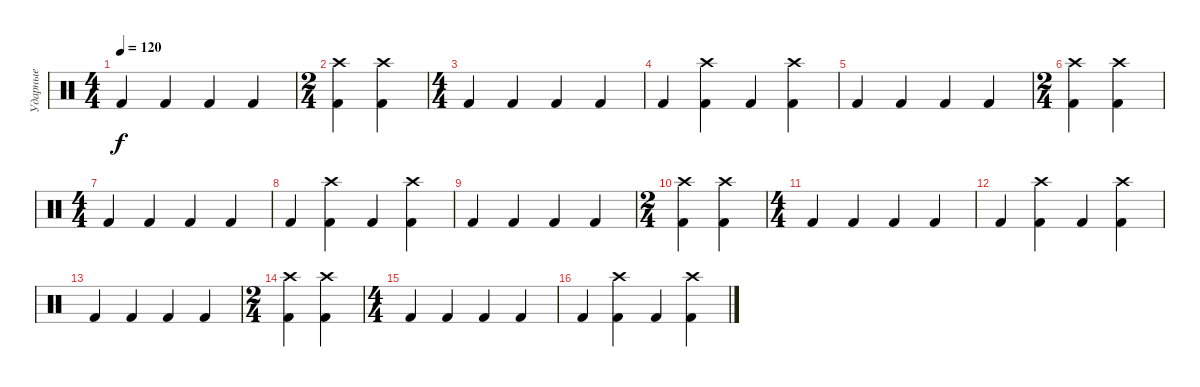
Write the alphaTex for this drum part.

\track ("Ударные" "Ударные") {instrument percussion}
\staff {score}
\articulation defaults
\ts (4 4)
\tempo 120
\clef neutral
\ks c "Kick (hit) 2".4{dy f} "Kick (hit) 2".4 "Kick (hit) 2".4 "Kick (hit) 2".4
|
\ts (2 4)
("Kick (hit) 2" "Crash high (hit)").4 ("Kick (hit) 2" "Crash high (hit)").4 |
\ts (4 4)
"Kick (hit) 2".4 "Kick (hit) 2".4 "Kick (hit) 2".4 "Kick (hit) 2".4 |
"Kick (hit) 2".4 ("Kick (hit) 2" "Crash high (hit)").4 "Kick (hit) 2".4 ("Kick (hit) 2" "Crash high (hit)").4 |
"Kick (hit) 2".4 "Kick (hit) 2".4 "Kick (hit) 2".4 "Kick (hit) 2".4 |
\ts (2 4)
("Kick (hit) 2" "Crash high (hit)").4 ("Kick (hit) 2" "Crash high (hit)").4 |
\ts (4 4)
"Kick (hit) 2".4 "Kick (hit) 2".4 "Kick (hit) 2".4 "Kick (hit) 2".4 |
"Kick (hit) 2".4 ("Kick (hit) 2" "Crash high (hit)").4 "Kick (hit) 2".4 ("Kick (hit) 2" "Crash high (hit)").4 |
"Kick (hit) 2".4 "Kick (hit) 2".4 "Kick (hit) 2".4 "Kick (hit) 2".4 |
\ts (2 4)
("Kick (hit) 2" "Crash high (hit)").4 ("Kick (hit) 2" "Crash high (hit)").4 |
\ts (4 4)
"Kick (hit) 2".4 "Kick (hit) 2".4 "Kick (hit) 2".4 "Kick (hit) 2".4 |
"Kick (hit) 2".4 ("Kick (hit) 2" "Crash high (hit)").4 "Kick (hit) 2".4 ("Kick (hit) 2" "Crash high (hit)").4 |
"Kick (hit) 2".4 "Kick (hit) 2".4 "Kick (hit) 2".4 "Kick (hit) 2".4 |
\ts (2 4)
("Kick (hit) 2" "Crash high (hit)").4 ("Kick (hit) 2" "Crash high (hit)").4 |
\ts (4 4)
"Kick (hit) 2".4 "Kick (hit) 2".4 "Kick (hit) 2".4 "Kick (hit) 2".4 |
"Kick (hit) 2".4 ("Kick (hit) 2" "Crash high (hit)").4 "Kick (hit) 2".4 ("Kick (hit) 2" "Crash high (hit)").4
